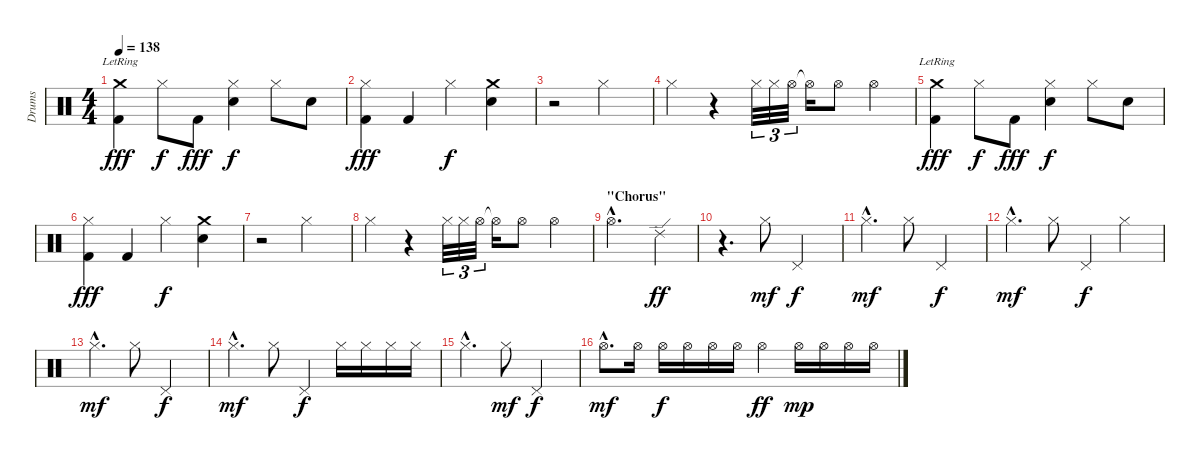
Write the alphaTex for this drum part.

\track ("Drums" "Drums") {instrument percussion}
\staff {score}
\articulation defaults
\ts (4 4)
\tempo 138
\clef neutral
\ks c
("Crash medium (hit)"{lr} "Kick (hit) 2").4{dy fff} "Hi-Hat (closed)".8{dy f} "Kick (hit) 2".8{dy fff} ("Hi-Hat (closed)" "Snare (hit) 2").4{dy f} "Hi-Hat (closed)".8 "Snare (hit) 2".8 |
("Hi-Hat (closed)" "Kick (hit) 2").4{dy fff} "Kick (hit) 2".4 "Hi-Hat (closed)".4{dy f} ("Crash medium (hit)" "Snare (hit) 2").4 |
r.2 "Hi-Hat (closed)".2 |
"Hi-Hat (closed)".4 r.4 "Hi-Hat (closed)".32{tu (3 2)} "Hi-Hat (closed)".32{tu (3 2)} "Hi-Hat (open)".32{tu (3 2)} "Hi-Hat (open)"{t}.16 "Hi-Hat (open)".8 "Hi-Hat (open)".4 |
("Crash medium (hit)"{lr} "Kick (hit) 2").4{dy fff} "Hi-Hat (closed)".8{dy f} "Kick (hit) 2".8{dy fff} ("Hi-Hat (closed)" "Snare (hit) 2").4{dy f} "Hi-Hat (closed)".8 "Snare (hit) 2".8 |
("Hi-Hat (closed)" "Kick (hit) 2").4{dy fff} "Kick (hit) 2".4 "Hi-Hat (closed)".4{dy f} ("Crash medium (hit)" "Snare (hit) 2").4 |
r.2 "Hi-Hat (closed)".2 |
"Hi-Hat (closed)".4 r.4 "Hi-Hat (closed)".32{tu (3 2)} "Hi-Hat (closed)".32{tu (3 2)} "Hi-Hat (open)".32{tu (3 2)} "Hi-Hat (open)"{t}.16 "Hi-Hat (open)".8 "Hi-Hat (open)".4 |
\section ("" "\"Chorus\"")
"Hi-Hat (open)"{hac}.2{d} "Ride (edge) 2".4{dy ff} |
r.4{d} "Hi-Hat (closed)".8{dy mf} "Pedal Hi-Hat (hit)".2{dy f} |
"Hi-Hat (closed)"{hac}.4{d dy mf} "Hi-Hat (closed)".8 "Pedal Hi-Hat (hit)".2{dy f} |
"Hi-Hat (closed)"{hac}.4{d dy mf} "Hi-Hat (closed)".8 "Pedal Hi-Hat (hit)".4{dy f} "Hi-Hat (closed)".4 |
"Hi-Hat (closed)"{hac}.4{d dy mf} "Hi-Hat (closed)".8 "Pedal Hi-Hat (hit)".2{dy f} |
"Hi-Hat (closed)"{hac}.4{d dy mf} "Hi-Hat (closed)".8 "Pedal Hi-Hat (hit)".4{dy f} "Hi-Hat (closed)".16 "Hi-Hat (closed)".16 "Hi-Hat (closed)".16 "Hi-Hat (closed)".16 |
"Hi-Hat (closed)"{hac}.4{d} "Hi-Hat (closed)".8{dy mf} "Pedal Hi-Hat (hit)".2{dy f} |
"Hi-Hat (open)"{hac}.8{d dy mf} "Hi-Hat (open)".16 "Hi-Hat (open)".16{dy f} "Hi-Hat (open)".16 "Hi-Hat (open)".16 "Hi-Hat (open)".16 "Hi-Hat (open)".4{dy ff} "Hi-Hat (open)".16{dy mp} "Hi-Hat (open)".16 "Hi-Hat (open)".16 "Hi-Hat (open)".16
